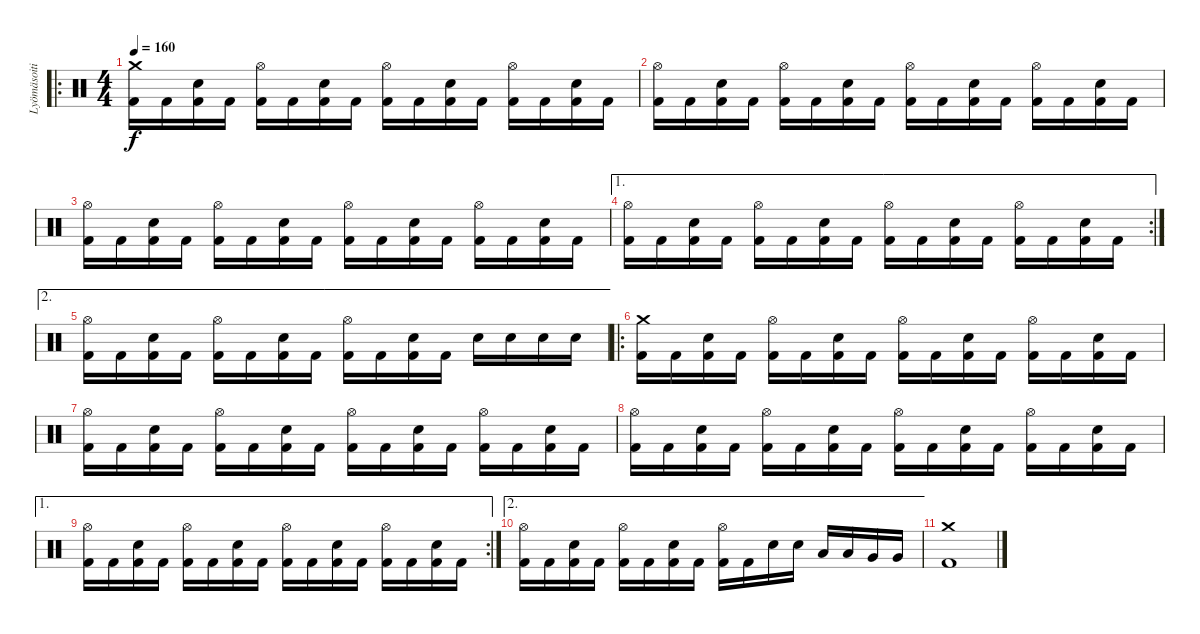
\track ("Lyömäsoitin" "Lyömäsoiti") {instrument percussion}
\staff {score}
\articulation defaults
\ro
\ts (4 4)
\tempo 160
\clef neutral
\ks c
("Crash medium (hit)" "Kick (hit) 2").16{dy f} "Kick (hit) 2".16 ("Electric Snare (hit)" "Kick (hit) 2").16 "Kick (hit) 2".16 ("Hi-Hat (open)" "Kick (hit) 2").16 "Kick (hit) 2".16 ("Electric Snare (hit)" "Kick (hit) 2").16 "Kick (hit) 2".16 ("Hi-Hat (open)" "Kick (hit) 2").16 "Kick (hit) 2".16 ("Electric Snare (hit)" "Kick (hit) 2").16 "Kick (hit) 2".16 ("Hi-Hat (open)" "Kick (hit) 2").16 "Kick (hit) 2".16 ("Electric Snare (hit)" "Kick (hit) 2").16 "Kick (hit) 2".16 |
("Hi-Hat (open)" "Kick (hit) 2").16 "Kick (hit) 2".16 ("Electric Snare (hit)" "Kick (hit) 2").16 "Kick (hit) 2".16 ("Hi-Hat (open)" "Kick (hit) 2").16 "Kick (hit) 2".16 ("Electric Snare (hit)" "Kick (hit) 2").16 "Kick (hit) 2".16 ("Hi-Hat (open)" "Kick (hit) 2").16 "Kick (hit) 2".16 ("Electric Snare (hit)" "Kick (hit) 2").16 "Kick (hit) 2".16 ("Hi-Hat (open)" "Kick (hit) 2").16 "Kick (hit) 2".16 ("Electric Snare (hit)" "Kick (hit) 2").16 "Kick (hit) 2".16 |
("Hi-Hat (open)" "Kick (hit) 2").16 "Kick (hit) 2".16 ("Electric Snare (hit)" "Kick (hit) 2").16 "Kick (hit) 2".16 ("Hi-Hat (open)" "Kick (hit) 2").16 "Kick (hit) 2".16 ("Electric Snare (hit)" "Kick (hit) 2").16 "Kick (hit) 2".16 ("Hi-Hat (open)" "Kick (hit) 2").16 "Kick (hit) 2".16 ("Electric Snare (hit)" "Kick (hit) 2").16 "Kick (hit) 2".16 ("Hi-Hat (open)" "Kick (hit) 2").16 "Kick (hit) 2".16 ("Electric Snare (hit)" "Kick (hit) 2").16 "Kick (hit) 2".16 |
\ae 1
\rc 2
("Hi-Hat (open)" "Kick (hit) 2").16 "Kick (hit) 2".16 ("Electric Snare (hit)" "Kick (hit) 2").16 "Kick (hit) 2".16 ("Hi-Hat (open)" "Kick (hit) 2").16 "Kick (hit) 2".16 ("Electric Snare (hit)" "Kick (hit) 2").16 "Kick (hit) 2".16 ("Hi-Hat (open)" "Kick (hit) 2").16 "Kick (hit) 2".16 ("Electric Snare (hit)" "Kick (hit) 2").16 "Kick (hit) 2".16 ("Hi-Hat (open)" "Kick (hit) 2").16 "Kick (hit) 2".16 ("Electric Snare (hit)" "Kick (hit) 2").16 "Kick (hit) 2".16 |
\ae 2
("Hi-Hat (open)" "Kick (hit) 2").16 "Kick (hit) 2".16 ("Electric Snare (hit)" "Kick (hit) 2").16 "Kick (hit) 2".16 ("Hi-Hat (open)" "Kick (hit) 2").16 "Kick (hit) 2".16 ("Electric Snare (hit)" "Kick (hit) 2").16 "Kick (hit) 2".16 ("Hi-Hat (open)" "Kick (hit) 2").16 "Kick (hit) 2".16 ("Electric Snare (hit)" "Kick (hit) 2").16 "Kick (hit) 2".16 "Electric Snare (hit)".16 "Electric Snare (hit)".16 "Electric Snare (hit)".16 "Electric Snare (hit)".16 |
\ro
("Crash medium (hit)" "Kick (hit) 2").16 "Kick (hit) 2".16 ("Electric Snare (hit)" "Kick (hit) 2").16 "Kick (hit) 2".16 ("Hi-Hat (open)" "Kick (hit) 2").16 "Kick (hit) 2".16 ("Electric Snare (hit)" "Kick (hit) 2").16 "Kick (hit) 2".16 ("Hi-Hat (open)" "Kick (hit) 2").16 "Kick (hit) 2".16 ("Electric Snare (hit)" "Kick (hit) 2").16 "Kick (hit) 2".16 ("Hi-Hat (open)" "Kick (hit) 2").16 "Kick (hit) 2".16 ("Electric Snare (hit)" "Kick (hit) 2").16 "Kick (hit) 2".16 |
("Hi-Hat (open)" "Kick (hit) 2").16 "Kick (hit) 2".16 ("Electric Snare (hit)" "Kick (hit) 2").16 "Kick (hit) 2".16 ("Hi-Hat (open)" "Kick (hit) 2").16 "Kick (hit) 2".16 ("Electric Snare (hit)" "Kick (hit) 2").16 "Kick (hit) 2".16 ("Hi-Hat (open)" "Kick (hit) 2").16 "Kick (hit) 2".16 ("Electric Snare (hit)" "Kick (hit) 2").16 "Kick (hit) 2".16 ("Hi-Hat (open)" "Kick (hit) 2").16 "Kick (hit) 2".16 ("Electric Snare (hit)" "Kick (hit) 2").16 "Kick (hit) 2".16 |
("Hi-Hat (open)" "Kick (hit) 2").16 "Kick (hit) 2".16 ("Electric Snare (hit)" "Kick (hit) 2").16 "Kick (hit) 2".16 ("Hi-Hat (open)" "Kick (hit) 2").16 "Kick (hit) 2".16 ("Electric Snare (hit)" "Kick (hit) 2").16 "Kick (hit) 2".16 ("Hi-Hat (open)" "Kick (hit) 2").16 "Kick (hit) 2".16 ("Electric Snare (hit)" "Kick (hit) 2").16 "Kick (hit) 2".16 ("Hi-Hat (open)" "Kick (hit) 2").16 "Kick (hit) 2".16 ("Electric Snare (hit)" "Kick (hit) 2").16 "Kick (hit) 2".16 |
\ae 1
\rc 2
("Hi-Hat (open)" "Kick (hit) 2").16 "Kick (hit) 2".16 ("Electric Snare (hit)" "Kick (hit) 2").16 "Kick (hit) 2".16 ("Hi-Hat (open)" "Kick (hit) 2").16 "Kick (hit) 2".16 ("Electric Snare (hit)" "Kick (hit) 2").16 "Kick (hit) 2".16 ("Hi-Hat (open)" "Kick (hit) 2").16 "Kick (hit) 2".16 ("Electric Snare (hit)" "Kick (hit) 2").16 "Kick (hit) 2".16 ("Hi-Hat (open)" "Kick (hit) 2").16 "Kick (hit) 2".16 ("Electric Snare (hit)" "Kick (hit) 2").16 "Kick (hit) 2".16 |
\ae 2
("Hi-Hat (open)" "Kick (hit) 2").16 "Kick (hit) 2".16 ("Electric Snare (hit)" "Kick (hit) 2").16 "Kick (hit) 2".16 ("Hi-Hat (open)" "Kick (hit) 2").16 "Kick (hit) 2".16 ("Electric Snare (hit)" "Kick (hit) 2").16 "Kick (hit) 2".16 ("Hi-Hat (open)" "Kick (hit) 2").16 "Kick (hit) 2".16 "Electric Snare (hit)".16 "Electric Snare (hit)".16 "Low Tom (hit)".16 "Low Tom (hit)".16 "Very Low Tom (hit)".16 "Very Low Tom (hit)".16 |
("Crash medium (hit)" "Kick (hit) 2").1
